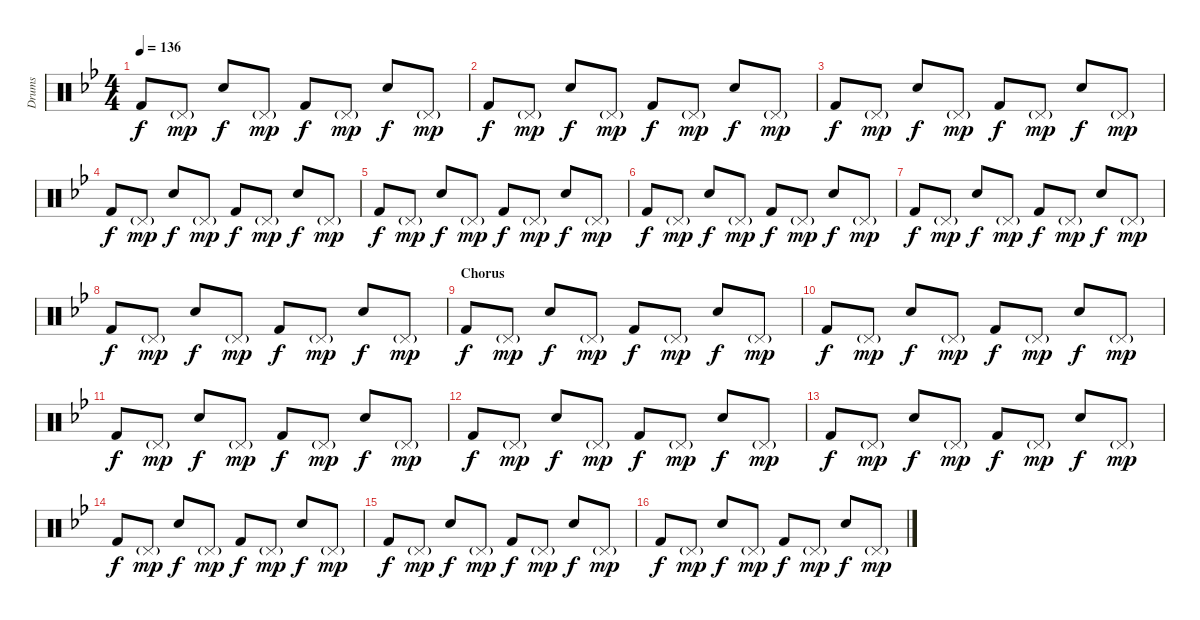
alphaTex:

\track ("Drums" "Drums") {instrument percussion}
\staff {score}
\articulation defaults
\ts (4 4)
\tempo 136
\clef neutral
\ks gminor "Kick (hit) 2".8{dy f} "Pedal Hi-Hat (hit)"{g}.8{dy mp} "Hand Clap (hit)".8{dy f} "Pedal Hi-Hat (hit)"{g}.8{dy mp} "Kick (hit) 2".8{dy f} "Pedal Hi-Hat (hit)"{g}.8{dy mp} "Hand Clap (hit)".8{dy f} "Pedal Hi-Hat (hit)"{g}.8{dy mp}
|
"Kick (hit) 2".8{dy f} "Pedal Hi-Hat (hit)"{g}.8{dy mp} "Hand Clap (hit)".8{dy f} "Pedal Hi-Hat (hit)"{g}.8{dy mp} "Kick (hit) 2".8{dy f} "Pedal Hi-Hat (hit)"{g}.8{dy mp} "Hand Clap (hit)".8{dy f} "Pedal Hi-Hat (hit)"{g}.8{dy mp} |
"Kick (hit) 2".8{dy f} "Pedal Hi-Hat (hit)"{g}.8{dy mp} "Hand Clap (hit)".8{dy f} "Pedal Hi-Hat (hit)"{g}.8{dy mp} "Kick (hit) 2".8{dy f} "Pedal Hi-Hat (hit)"{g}.8{dy mp} "Hand Clap (hit)".8{dy f} "Pedal Hi-Hat (hit)"{g}.8{dy mp} |
"Kick (hit) 2".8{dy f} "Pedal Hi-Hat (hit)"{g}.8{dy mp} "Hand Clap (hit)".8{dy f} "Pedal Hi-Hat (hit)"{g}.8{dy mp} "Kick (hit) 2".8{dy f} "Pedal Hi-Hat (hit)"{g}.8{dy mp} "Hand Clap (hit)".8{dy f} "Pedal Hi-Hat (hit)"{g}.8{dy mp} |
"Kick (hit) 2".8{dy f} "Pedal Hi-Hat (hit)"{g}.8{dy mp} "Hand Clap (hit)".8{dy f} "Pedal Hi-Hat (hit)"{g}.8{dy mp} "Kick (hit) 2".8{dy f} "Pedal Hi-Hat (hit)"{g}.8{dy mp} "Hand Clap (hit)".8{dy f} "Pedal Hi-Hat (hit)"{g}.8{dy mp} |
"Kick (hit) 2".8{dy f} "Pedal Hi-Hat (hit)"{g}.8{dy mp} "Hand Clap (hit)".8{dy f} "Pedal Hi-Hat (hit)"{g}.8{dy mp} "Kick (hit) 2".8{dy f} "Pedal Hi-Hat (hit)"{g}.8{dy mp} "Hand Clap (hit)".8{dy f} "Pedal Hi-Hat (hit)"{g}.8{dy mp} |
"Kick (hit) 2".8{dy f} "Pedal Hi-Hat (hit)"{g}.8{dy mp} "Hand Clap (hit)".8{dy f} "Pedal Hi-Hat (hit)"{g}.8{dy mp} "Kick (hit) 2".8{dy f} "Pedal Hi-Hat (hit)"{g}.8{dy mp} "Hand Clap (hit)".8{dy f} "Pedal Hi-Hat (hit)"{g}.8{dy mp} |
"Kick (hit) 2".8{dy f} "Pedal Hi-Hat (hit)"{g}.8{dy mp} "Hand Clap (hit)".8{dy f} "Pedal Hi-Hat (hit)"{g}.8{dy mp} "Kick (hit) 2".8{dy f} "Pedal Hi-Hat (hit)"{g}.8{dy mp} "Hand Clap (hit)".8{dy f} "Pedal Hi-Hat (hit)"{g}.8{dy mp} |
\section ("" "Chorus")
"Kick (hit) 2".8{dy f} "Pedal Hi-Hat (hit)"{g}.8{dy mp} "Hand Clap (hit)".8{dy f} "Pedal Hi-Hat (hit)"{g}.8{dy mp} "Kick (hit) 2".8{dy f} "Pedal Hi-Hat (hit)"{g}.8{dy mp} "Hand Clap (hit)".8{dy f} "Pedal Hi-Hat (hit)"{g}.8{dy mp} |
"Kick (hit) 2".8{dy f} "Pedal Hi-Hat (hit)"{g}.8{dy mp} "Hand Clap (hit)".8{dy f} "Pedal Hi-Hat (hit)"{g}.8{dy mp} "Kick (hit) 2".8{dy f} "Pedal Hi-Hat (hit)"{g}.8{dy mp} "Hand Clap (hit)".8{dy f} "Pedal Hi-Hat (hit)"{g}.8{dy mp} |
"Kick (hit) 2".8{dy f} "Pedal Hi-Hat (hit)"{g}.8{dy mp} "Hand Clap (hit)".8{dy f} "Pedal Hi-Hat (hit)"{g}.8{dy mp} "Kick (hit) 2".8{dy f} "Pedal Hi-Hat (hit)"{g}.8{dy mp} "Hand Clap (hit)".8{dy f} "Pedal Hi-Hat (hit)"{g}.8{dy mp} |
"Kick (hit) 2".8{dy f} "Pedal Hi-Hat (hit)"{g}.8{dy mp} "Hand Clap (hit)".8{dy f} "Pedal Hi-Hat (hit)"{g}.8{dy mp} "Kick (hit) 2".8{dy f} "Pedal Hi-Hat (hit)"{g}.8{dy mp} "Hand Clap (hit)".8{dy f} "Pedal Hi-Hat (hit)"{g}.8{dy mp} |
"Kick (hit) 2".8{dy f} "Pedal Hi-Hat (hit)"{g}.8{dy mp} "Hand Clap (hit)".8{dy f} "Pedal Hi-Hat (hit)"{g}.8{dy mp} "Kick (hit) 2".8{dy f} "Pedal Hi-Hat (hit)"{g}.8{dy mp} "Hand Clap (hit)".8{dy f} "Pedal Hi-Hat (hit)"{g}.8{dy mp} |
"Kick (hit) 2".8{dy f} "Pedal Hi-Hat (hit)"{g}.8{dy mp} "Hand Clap (hit)".8{dy f} "Pedal Hi-Hat (hit)"{g}.8{dy mp} "Kick (hit) 2".8{dy f} "Pedal Hi-Hat (hit)"{g}.8{dy mp} "Hand Clap (hit)".8{dy f} "Pedal Hi-Hat (hit)"{g}.8{dy mp} |
"Kick (hit) 2".8{dy f} "Pedal Hi-Hat (hit)"{g}.8{dy mp} "Hand Clap (hit)".8{dy f} "Pedal Hi-Hat (hit)"{g}.8{dy mp} "Kick (hit) 2".8{dy f} "Pedal Hi-Hat (hit)"{g}.8{dy mp} "Hand Clap (hit)".8{dy f} "Pedal Hi-Hat (hit)"{g}.8{dy mp} |
"Kick (hit) 2".8{dy f} "Pedal Hi-Hat (hit)"{g}.8{dy mp} "Hand Clap (hit)".8{dy f} "Pedal Hi-Hat (hit)"{g}.8{dy mp} "Kick (hit) 2".8{dy f} "Pedal Hi-Hat (hit)"{g}.8{dy mp} "Hand Clap (hit)".8{dy f} "Pedal Hi-Hat (hit)"{g}.8{dy mp}
